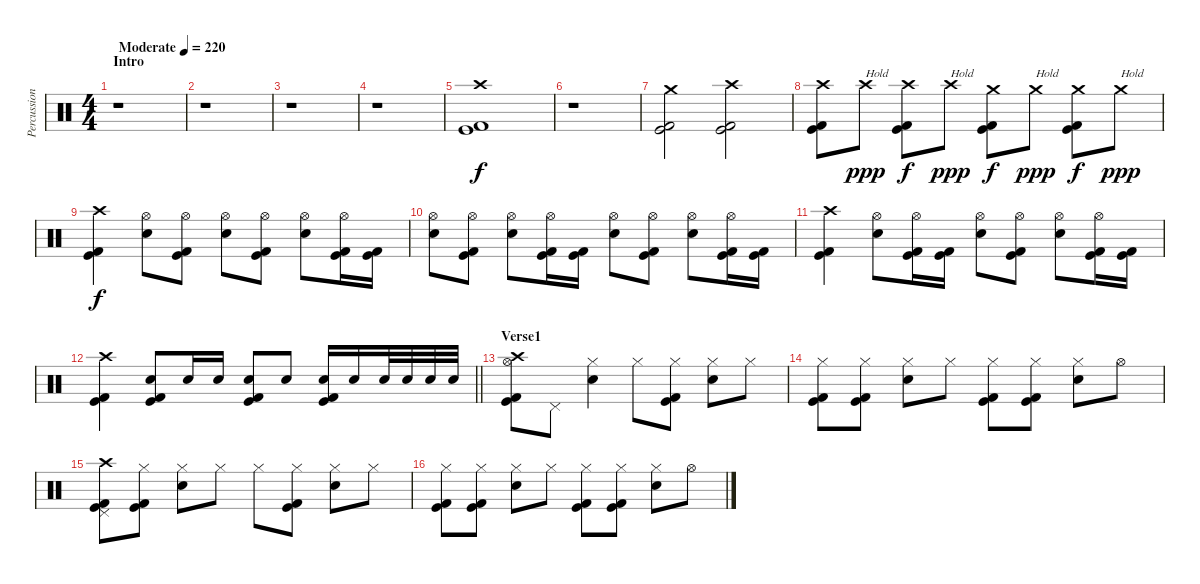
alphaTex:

\track ("Percussion" "Percussion") {instrument percussion}
\staff {score}
\articulation defaults
\ts (4 4)
\section ("" "Intro")
\tempo (220 "Moderate")
\clef neutral
\ks c
r.1{dy f} |
r.1 |
r.1 |
r.1 |
("Crash high (hit)" "Kick (hit)" "Kick (hit) 2").1 |
r.1 |
("Crash medium (hit)" "Kick (hit)" "Kick (hit) 2").2 ("Crash high (hit)" "Kick (hit)" "Kick (hit) 2").2 |
("Crash high (hit)" "Kick (hit)" "Kick (hit) 2").8 "Crash high (hit)".8{txt "Hold" dy ppp} ("Crash high (hit)" "Kick (hit)" "Kick (hit) 2").8{dy f} "Crash high (hit)".8{txt "Hold" dy ppp} ("Crash medium (hit)" "Kick (hit)" "Kick (hit) 2").8{dy f} "Crash medium (hit)".8{txt "Hold" dy ppp} ("Crash medium (hit)" "Kick (hit)" "Kick (hit) 2").8{dy f} "Crash medium (hit)".8{txt "Hold" dy ppp} |
("Crash high (hit)" "Kick (hit)" "Kick (hit) 2").4{dy f} ("Hi-Hat (open)" "Electric Snare (hit)").8 ("Hi-Hat (open)" "Kick (hit)" "Kick (hit) 2").8 ("Hi-Hat (open)" "Electric Snare (hit)").8 ("Hi-Hat (open)" "Kick (hit)" "Kick (hit) 2").8 ("Hi-Hat (open)" "Electric Snare (hit)").8 ("Hi-Hat (open)" "Kick (hit)" "Kick (hit) 2").16 ("Kick (hit)" "Kick (hit) 2").16 |
("Hi-Hat (open)" "Electric Snare (hit)").8 ("Hi-Hat (open)" "Kick (hit)" "Kick (hit) 2").8 ("Hi-Hat (open)" "Electric Snare (hit)").8 ("Hi-Hat (open)" "Kick (hit)" "Kick (hit) 2").16 ("Kick (hit)" "Kick (hit) 2").16 ("Hi-Hat (open)" "Electric Snare (hit)").8 ("Hi-Hat (open)" "Kick (hit)" "Kick (hit) 2").8 ("Hi-Hat (open)" "Electric Snare (hit)").8 ("Hi-Hat (open)" "Kick (hit)" "Kick (hit) 2").16 ("Kick (hit)" "Kick (hit) 2").16 |
("Crash high (hit)" "Kick (hit)" "Kick (hit) 2").4 ("Hi-Hat (open)" "Electric Snare (hit)").8 ("Hi-Hat (open)" "Kick (hit)" "Kick (hit) 2").16 ("Kick (hit)" "Kick (hit) 2").16 ("Hi-Hat (open)" "Electric Snare (hit)").8 ("Hi-Hat (open)" "Kick (hit)" "Kick (hit) 2").8 ("Hi-Hat (open)" "Electric Snare (hit)").8 ("Hi-Hat (open)" "Kick (hit)" "Kick (hit) 2").16 ("Kick (hit)" "Kick (hit) 2").16 |
\barLineRight lightlight
("Crash high (hit)" "Kick (hit)" "Kick (hit) 2").4 ("Electric Snare (hit)" "Kick (hit)" "Kick (hit) 2").8 "Electric Snare (hit)".16 "Electric Snare (hit)".16 ("Electric Snare (hit)" "Kick (hit)" "Kick (hit) 2").8 "Electric Snare (hit)".8 ("Electric Snare (hit)" "Kick (hit)" "Kick (hit) 2").16 "Electric Snare (hit)".16 "Electric Snare (hit)".32 "Electric Snare (hit)".32 "Electric Snare (hit)".32 "Electric Snare (hit)".32 |
\section ("" "Verse1")
("Hi-Hat (open)" "Crash high (hit)" "Kick (hit)" "Kick (hit) 2").8 "Pedal Hi-Hat (hit)".8 ("Hi-Hat (closed)" "Electric Snare (hit)").4 "Hi-Hat (closed)".8 ("Hi-Hat (closed)" "Kick (hit)" "Kick (hit) 2").8 ("Hi-Hat (closed)" "Electric Snare (hit)").8 "Hi-Hat (closed)".8 |
("Hi-Hat (closed)" "Kick (hit)" "Kick (hit) 2").8 ("Hi-Hat (closed)" "Kick (hit)" "Kick (hit) 2").8 ("Hi-Hat (closed)" "Electric Snare (hit)").8 "Hi-Hat (closed)".8 ("Hi-Hat (closed)" "Kick (hit)" "Kick (hit) 2").8 ("Hi-Hat (closed)" "Kick (hit)" "Kick (hit) 2").8 ("Hi-Hat (closed)" "Electric Snare (hit)").8 "Hi-Hat (open)".8 |
("Pedal Hi-Hat (hit)" "Crash high (hit)" "Kick (hit)" "Kick (hit) 2").8 ("Hi-Hat (closed)" "Kick (hit)" "Kick (hit) 2").8 ("Hi-Hat (closed)" "Electric Snare (hit)").8 "Hi-Hat (closed)".8 "Hi-Hat (closed)".8 ("Hi-Hat (closed)" "Kick (hit)" "Kick (hit) 2").8 ("Hi-Hat (closed)" "Electric Snare (hit)").8 "Hi-Hat (closed)".8 |
("Hi-Hat (closed)" "Kick (hit)" "Kick (hit) 2").8 ("Hi-Hat (closed)" "Kick (hit)" "Kick (hit) 2").8 ("Hi-Hat (closed)" "Electric Snare (hit)").8 "Hi-Hat (closed)".8 ("Hi-Hat (closed)" "Kick (hit)" "Kick (hit) 2").8 ("Hi-Hat (closed)" "Kick (hit)" "Kick (hit) 2").8 ("Hi-Hat (closed)" "Electric Snare (hit)").8 "Hi-Hat (open)".8
